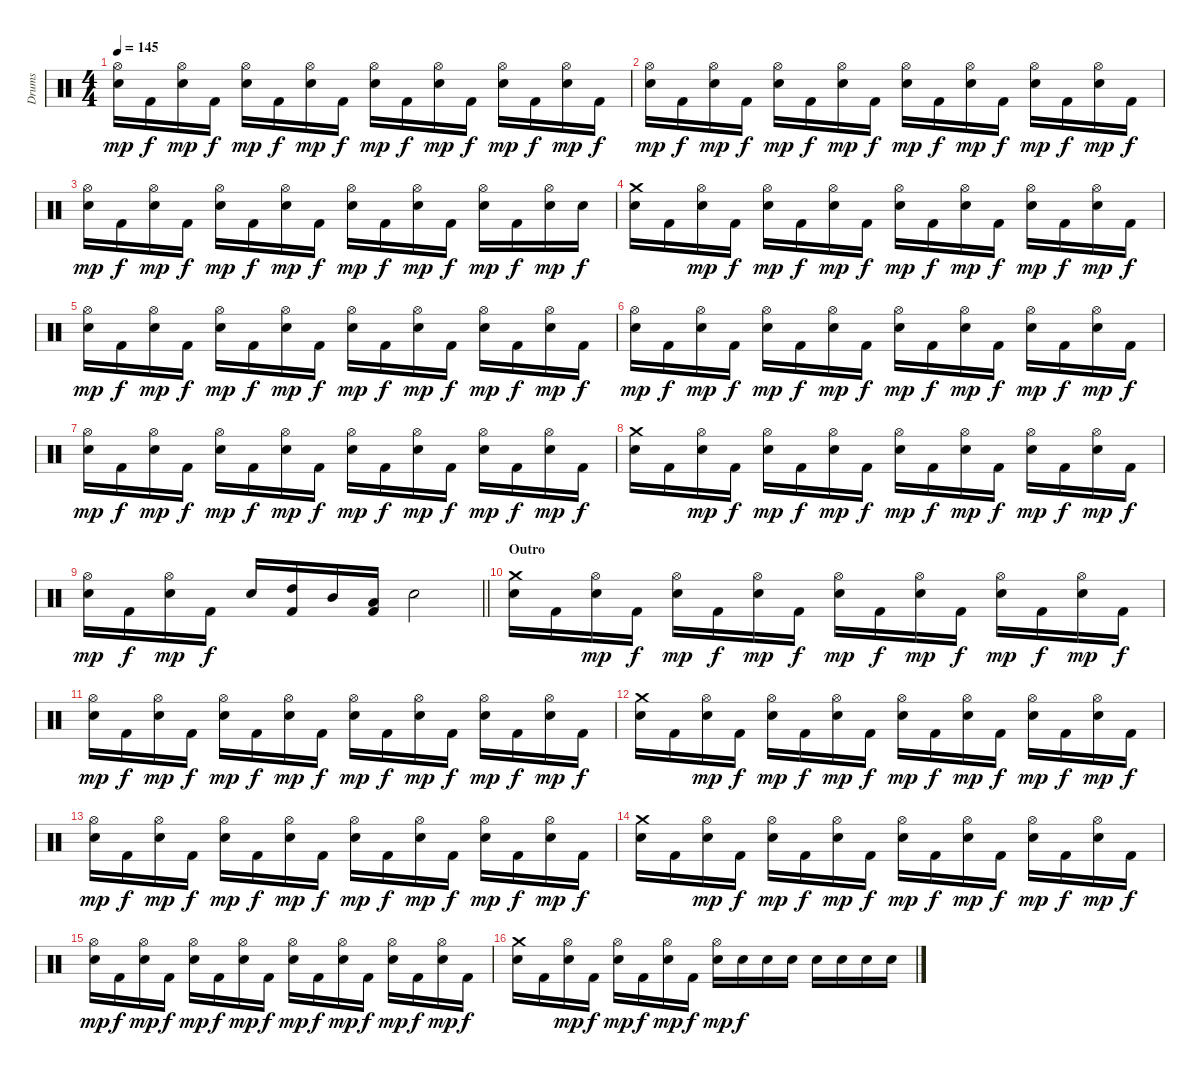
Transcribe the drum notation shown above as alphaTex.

\track ("Drums" "Drums") {instrument percussion}
\staff {score}
\articulation defaults
\ts (4 4)
\tempo 145
\clef neutral
\ks c
("Hi-Hat (open)" "Snare (hit) 2").16{dy mp} "Kick (hit) 2".16{dy f} ("Hi-Hat (open)" "Snare (hit) 2").16{dy mp} "Kick (hit) 2".16{dy f} ("Hi-Hat (open)" "Snare (hit) 2").16{dy mp} "Kick (hit) 2".16{dy f} ("Hi-Hat (open)" "Snare (hit) 2").16{dy mp} "Kick (hit) 2".16{dy f} ("Hi-Hat (open)" "Snare (hit) 2").16{dy mp} "Kick (hit) 2".16{dy f} ("Hi-Hat (open)" "Snare (hit) 2").16{dy mp} "Kick (hit) 2".16{dy f} ("Hi-Hat (open)" "Snare (hit) 2").16{dy mp} "Kick (hit) 2".16{dy f} ("Hi-Hat (open)" "Snare (hit) 2").16{dy mp} "Kick (hit) 2".16{dy f} |
("Hi-Hat (open)" "Snare (hit) 2").16{dy mp} "Kick (hit) 2".16{dy f} ("Hi-Hat (open)" "Snare (hit) 2").16{dy mp} "Kick (hit) 2".16{dy f} ("Hi-Hat (open)" "Snare (hit) 2").16{dy mp} "Kick (hit) 2".16{dy f} ("Hi-Hat (open)" "Snare (hit) 2").16{dy mp} "Kick (hit) 2".16{dy f} ("Hi-Hat (open)" "Snare (hit) 2").16{dy mp} "Kick (hit) 2".16{dy f} ("Hi-Hat (open)" "Snare (hit) 2").16{dy mp} "Kick (hit) 2".16{dy f} ("Hi-Hat (open)" "Snare (hit) 2").16{dy mp} "Kick (hit) 2".16{dy f} ("Hi-Hat (open)" "Snare (hit) 2").16{dy mp} "Kick (hit) 2".16{dy f} |
("Hi-Hat (open)" "Snare (hit) 2").16{dy mp} "Kick (hit) 2".16{dy f} ("Hi-Hat (open)" "Snare (hit) 2").16{dy mp} "Kick (hit) 2".16{dy f} ("Hi-Hat (open)" "Snare (hit) 2").16{dy mp} "Kick (hit) 2".16{dy f} ("Hi-Hat (open)" "Snare (hit) 2").16{dy mp} "Kick (hit) 2".16{dy f} ("Hi-Hat (open)" "Snare (hit) 2").16{dy mp} "Kick (hit) 2".16{dy f} ("Hi-Hat (open)" "Snare (hit) 2").16{dy mp} "Kick (hit) 2".16{dy f} ("Hi-Hat (open)" "Snare (hit) 2").16{dy mp} "Kick (hit) 2".16{dy f} ("Hi-Hat (open)" "Snare (hit) 2").16{dy mp} "Snare (hit) 2".16{dy f} |
("Crash medium (hit)" "Snare (hit) 2").16 "Kick (hit) 2".16 ("Hi-Hat (open)" "Snare (hit) 2").16{dy mp} "Kick (hit) 2".16{dy f} ("Hi-Hat (open)" "Snare (hit) 2").16{dy mp} "Kick (hit) 2".16{dy f} ("Hi-Hat (open)" "Snare (hit) 2").16{dy mp} "Kick (hit) 2".16{dy f} ("Hi-Hat (open)" "Snare (hit) 2").16{dy mp} "Kick (hit) 2".16{dy f} ("Hi-Hat (open)" "Snare (hit) 2").16{dy mp} "Kick (hit) 2".16{dy f} ("Hi-Hat (open)" "Snare (hit) 2").16{dy mp} "Kick (hit) 2".16{dy f} ("Hi-Hat (open)" "Snare (hit) 2").16{dy mp} "Kick (hit) 2".16{dy f} |
("Hi-Hat (open)" "Snare (hit) 2").16{dy mp} "Kick (hit) 2".16{dy f} ("Hi-Hat (open)" "Snare (hit) 2").16{dy mp} "Kick (hit) 2".16{dy f} ("Hi-Hat (open)" "Snare (hit) 2").16{dy mp} "Kick (hit) 2".16{dy f} ("Hi-Hat (open)" "Snare (hit) 2").16{dy mp} "Kick (hit) 2".16{dy f} ("Hi-Hat (open)" "Snare (hit) 2").16{dy mp} "Kick (hit) 2".16{dy f} ("Hi-Hat (open)" "Snare (hit) 2").16{dy mp} "Kick (hit) 2".16{dy f} ("Hi-Hat (open)" "Snare (hit) 2").16{dy mp} "Kick (hit) 2".16{dy f} ("Hi-Hat (open)" "Snare (hit) 2").16{dy mp} "Kick (hit) 2".16{dy f} |
("Hi-Hat (open)" "Snare (hit) 2").16{dy mp} "Kick (hit) 2".16{dy f} ("Hi-Hat (open)" "Snare (hit) 2").16{dy mp} "Kick (hit) 2".16{dy f} ("Hi-Hat (open)" "Snare (hit) 2").16{dy mp} "Kick (hit) 2".16{dy f} ("Hi-Hat (open)" "Snare (hit) 2").16{dy mp} "Kick (hit) 2".16{dy f} ("Hi-Hat (open)" "Snare (hit) 2").16{dy mp} "Kick (hit) 2".16{dy f} ("Hi-Hat (open)" "Snare (hit) 2").16{dy mp} "Kick (hit) 2".16{dy f} ("Hi-Hat (open)" "Snare (hit) 2").16{dy mp} "Kick (hit) 2".16{dy f} ("Hi-Hat (open)" "Snare (hit) 2").16{dy mp} "Kick (hit) 2".16{dy f} |
("Hi-Hat (open)" "Snare (hit) 2").16{dy mp} "Kick (hit) 2".16{dy f} ("Hi-Hat (open)" "Snare (hit) 2").16{dy mp} "Kick (hit) 2".16{dy f} ("Hi-Hat (open)" "Snare (hit) 2").16{dy mp} "Kick (hit) 2".16{dy f} ("Hi-Hat (open)" "Snare (hit) 2").16{dy mp} "Kick (hit) 2".16{dy f} ("Hi-Hat (open)" "Snare (hit) 2").16{dy mp} "Kick (hit) 2".16{dy f} ("Hi-Hat (open)" "Snare (hit) 2").16{dy mp} "Kick (hit) 2".16{dy f} ("Hi-Hat (open)" "Snare (hit) 2").16{dy mp} "Kick (hit) 2".16{dy f} ("Hi-Hat (open)" "Snare (hit) 2").16{dy mp} "Kick (hit) 2".16{dy f} |
("Crash medium (hit)" "Snare (hit) 2").16 "Kick (hit) 2".16 ("Hi-Hat (open)" "Snare (hit) 2").16{dy mp} "Kick (hit) 2".16{dy f} ("Hi-Hat (open)" "Snare (hit) 2").16{dy mp} "Kick (hit) 2".16{dy f} ("Hi-Hat (open)" "Snare (hit) 2").16{dy mp} "Kick (hit) 2".16{dy f} ("Hi-Hat (open)" "Snare (hit) 2").16{dy mp} "Kick (hit) 2".16{dy f} ("Hi-Hat (open)" "Snare (hit) 2").16{dy mp} "Kick (hit) 2".16{dy f} ("Hi-Hat (open)" "Snare (hit) 2").16{dy mp} "Kick (hit) 2".16{dy f} ("Hi-Hat (open)" "Snare (hit) 2").16{dy mp} "Kick (hit) 2".16{dy f} |
\barLineRight lightlight
("Hi-Hat (open)" "Snare (hit) 2").16{dy mp} "Kick (hit) 2".16{dy f} ("Hi-Hat (open)" "Snare (hit) 2").16{dy mp} "Kick (hit) 2".16{dy f} "Snare (hit) 2".16 ("High Tom (hit)" "Kick (hit) 2").16 "Mid Tom (hit)".16 ("Low Tom (hit)" "Kick (hit) 2").16 "Snare (hit) 2".2 |
\section ("" "Outro")
("Crash medium (hit)" "Snare (hit) 2").16 "Kick (hit) 2".16 ("Hi-Hat (open)" "Snare (hit) 2").16{dy mp} "Kick (hit) 2".16{dy f} ("Hi-Hat (open)" "Snare (hit) 2").16{dy mp} "Kick (hit) 2".16{dy f} ("Hi-Hat (open)" "Snare (hit) 2").16{dy mp} "Kick (hit) 2".16{dy f} ("Hi-Hat (open)" "Snare (hit) 2").16{dy mp} "Kick (hit) 2".16{dy f} ("Hi-Hat (open)" "Snare (hit) 2").16{dy mp} "Kick (hit) 2".16{dy f} ("Hi-Hat (open)" "Snare (hit) 2").16{dy mp} "Kick (hit) 2".16{dy f} ("Hi-Hat (open)" "Snare (hit) 2").16{dy mp} "Kick (hit) 2".16{dy f} |
("Hi-Hat (open)" "Snare (hit) 2").16{dy mp} "Kick (hit) 2".16{dy f} ("Hi-Hat (open)" "Snare (hit) 2").16{dy mp} "Kick (hit) 2".16{dy f} ("Hi-Hat (open)" "Snare (hit) 2").16{dy mp} "Kick (hit) 2".16{dy f} ("Hi-Hat (open)" "Snare (hit) 2").16{dy mp} "Kick (hit) 2".16{dy f} ("Hi-Hat (open)" "Snare (hit) 2").16{dy mp} "Kick (hit) 2".16{dy f} ("Hi-Hat (open)" "Snare (hit) 2").16{dy mp} "Kick (hit) 2".16{dy f} ("Hi-Hat (open)" "Snare (hit) 2").16{dy mp} "Kick (hit) 2".16{dy f} ("Hi-Hat (open)" "Snare (hit) 2").16{dy mp} "Kick (hit) 2".16{dy f} |
("Crash medium (hit)" "Snare (hit) 2").16 "Kick (hit) 2".16 ("Hi-Hat (open)" "Snare (hit) 2").16{dy mp} "Kick (hit) 2".16{dy f} ("Hi-Hat (open)" "Snare (hit) 2").16{dy mp} "Kick (hit) 2".16{dy f} ("Hi-Hat (open)" "Snare (hit) 2").16{dy mp} "Kick (hit) 2".16{dy f} ("Hi-Hat (open)" "Snare (hit) 2").16{dy mp} "Kick (hit) 2".16{dy f} ("Hi-Hat (open)" "Snare (hit) 2").16{dy mp} "Kick (hit) 2".16{dy f} ("Hi-Hat (open)" "Snare (hit) 2").16{dy mp} "Kick (hit) 2".16{dy f} ("Hi-Hat (open)" "Snare (hit) 2").16{dy mp} "Kick (hit) 2".16{dy f} |
("Hi-Hat (open)" "Snare (hit) 2").16{dy mp} "Kick (hit) 2".16{dy f} ("Hi-Hat (open)" "Snare (hit) 2").16{dy mp} "Kick (hit) 2".16{dy f} ("Hi-Hat (open)" "Snare (hit) 2").16{dy mp} "Kick (hit) 2".16{dy f} ("Hi-Hat (open)" "Snare (hit) 2").16{dy mp} "Kick (hit) 2".16{dy f} ("Hi-Hat (open)" "Snare (hit) 2").16{dy mp} "Kick (hit) 2".16{dy f} ("Hi-Hat (open)" "Snare (hit) 2").16{dy mp} "Kick (hit) 2".16{dy f} ("Hi-Hat (open)" "Snare (hit) 2").16{dy mp} "Kick (hit) 2".16{dy f} ("Hi-Hat (open)" "Snare (hit) 2").16{dy mp} "Kick (hit) 2".16{dy f} |
("Crash medium (hit)" "Snare (hit) 2").16 "Kick (hit) 2".16 ("Hi-Hat (open)" "Snare (hit) 2").16{dy mp} "Kick (hit) 2".16{dy f} ("Hi-Hat (open)" "Snare (hit) 2").16{dy mp} "Kick (hit) 2".16{dy f} ("Hi-Hat (open)" "Snare (hit) 2").16{dy mp} "Kick (hit) 2".16{dy f} ("Hi-Hat (open)" "Snare (hit) 2").16{dy mp} "Kick (hit) 2".16{dy f} ("Hi-Hat (open)" "Snare (hit) 2").16{dy mp} "Kick (hit) 2".16{dy f} ("Hi-Hat (open)" "Snare (hit) 2").16{dy mp} "Kick (hit) 2".16{dy f} ("Hi-Hat (open)" "Snare (hit) 2").16{dy mp} "Kick (hit) 2".16{dy f} |
("Hi-Hat (open)" "Snare (hit) 2").16{dy mp} "Kick (hit) 2".16{dy f} ("Hi-Hat (open)" "Snare (hit) 2").16{dy mp} "Kick (hit) 2".16{dy f} ("Hi-Hat (open)" "Snare (hit) 2").16{dy mp} "Kick (hit) 2".16{dy f} ("Hi-Hat (open)" "Snare (hit) 2").16{dy mp} "Kick (hit) 2".16{dy f} ("Hi-Hat (open)" "Snare (hit) 2").16{dy mp} "Kick (hit) 2".16{dy f} ("Hi-Hat (open)" "Snare (hit) 2").16{dy mp} "Kick (hit) 2".16{dy f} ("Hi-Hat (open)" "Snare (hit) 2").16{dy mp} "Kick (hit) 2".16{dy f} ("Hi-Hat (open)" "Snare (hit) 2").16{dy mp} "Kick (hit) 2".16{dy f} |
("Crash medium (hit)" "Snare (hit) 2").16 "Kick (hit) 2".16 ("Hi-Hat (open)" "Snare (hit) 2").16{dy mp} "Kick (hit) 2".16{dy f} ("Hi-Hat (open)" "Snare (hit) 2").16{dy mp} "Kick (hit) 2".16{dy f} ("Hi-Hat (open)" "Snare (hit) 2").16{dy mp} "Kick (hit) 2".16{dy f} ("Hi-Hat (open)" "Snare (hit) 2").16{dy mp} "Snare (hit) 2".16{dy f} "Snare (hit) 2".16 "Snare (hit) 2".16 "Snare (hit) 2".16 "Snare (hit) 2".16 "Snare (hit) 2".16 "Snare (hit) 2".16
